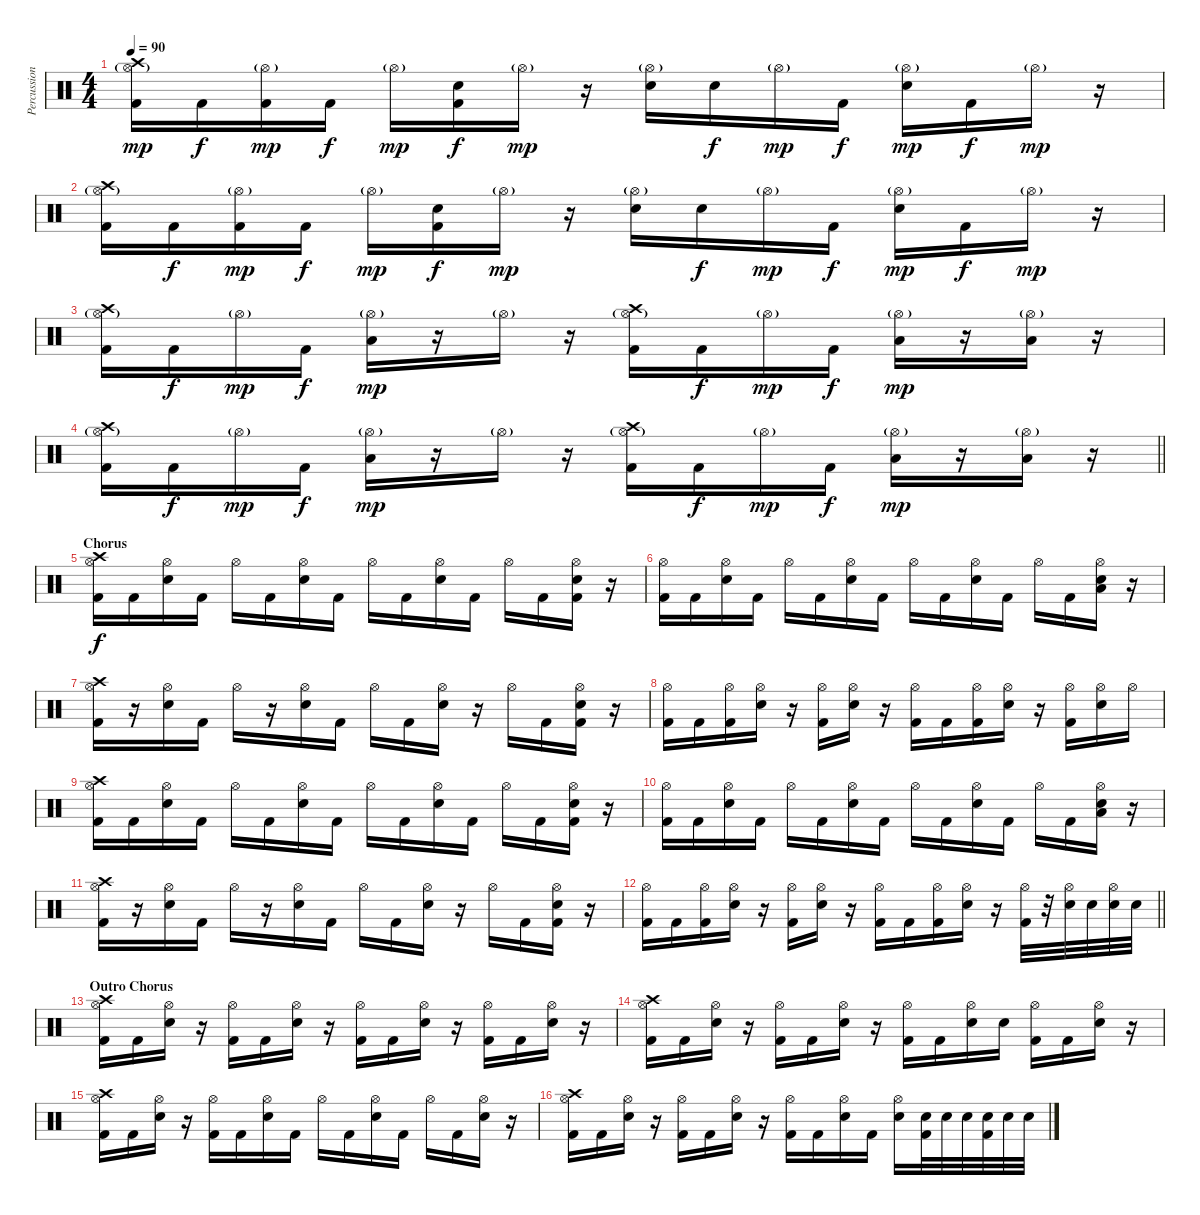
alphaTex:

\track ("Percussion" "Percussion") {instrument percussion}
\staff {score}
\articulation defaults
\ts (4 4)
\tempo 90
\clef neutral
\ks c
("Crash high (hit)" "Hi-Hat (open)"{g} "Kick (hit) 2").16{dy mp} "Kick (hit) 2".16{dy f} ("Hi-Hat (open)"{g} "Kick (hit) 2").16{dy mp} "Kick (hit) 2".16{dy f} "Hi-Hat (open)"{g}.16{dy mp} ("Electric Snare (hit)" "Kick (hit) 2").16{dy f} "Hi-Hat (open)"{g}.16{dy mp} r.16 ("Hi-Hat (open)"{g} "Electric Snare (hit)").16 "Electric Snare (hit)".16{dy f} "Hi-Hat (open)"{g}.16{dy mp} "Kick (hit) 2".16{dy f} ("Hi-Hat (open)"{g} "Electric Snare (hit)").16{dy mp} "Kick (hit) 2".16{dy f} "Hi-Hat (open)"{g}.16{dy mp} r.16 |
("Crash high (hit)" "Hi-Hat (open)"{g} "Kick (hit) 2").16 "Kick (hit) 2".16{dy f} ("Hi-Hat (open)"{g} "Kick (hit) 2").16{dy mp} "Kick (hit) 2".16{dy f} "Hi-Hat (open)"{g}.16{dy mp} ("Electric Snare (hit)" "Kick (hit) 2").16{dy f} "Hi-Hat (open)"{g}.16{dy mp} r.16 ("Hi-Hat (open)"{g} "Electric Snare (hit)").16 "Electric Snare (hit)".16{dy f} "Hi-Hat (open)"{g}.16{dy mp} "Kick (hit) 2".16{dy f} ("Hi-Hat (open)"{g} "Electric Snare (hit)").16{dy mp} "Kick (hit) 2".16{dy f} "Hi-Hat (open)"{g}.16{dy mp} r.16 |
("Crash high (hit)" "Hi-Hat (open)"{g} "Kick (hit) 2").16 "Kick (hit) 2".16{dy f} "Hi-Hat (open)"{g}.16{dy mp} "Kick (hit) 2".16{dy f} ("Hi-Hat (open)"{g} "Low Floor Tom (hit)").16{dy mp} r.16 "Hi-Hat (open)"{g}.16 r.16 ("Crash high (hit)" "Hi-Hat (open)"{g} "Kick (hit) 2").16 "Kick (hit) 2".16{dy f} "Hi-Hat (open)"{g}.16{dy mp} "Kick (hit) 2".16{dy f} ("Hi-Hat (open)"{g} "Low Floor Tom (hit)").16{dy mp} r.16 ("Hi-Hat (open)"{g} "Low Floor Tom (hit)").16 r.16 |
\barLineRight lightlight
("Crash high (hit)" "Hi-Hat (open)"{g} "Kick (hit) 2").16 "Kick (hit) 2".16{dy f} "Hi-Hat (open)"{g}.16{dy mp} "Kick (hit) 2".16{dy f} ("Hi-Hat (open)"{g} "Low Floor Tom (hit)").16{dy mp} r.16 "Hi-Hat (open)"{g}.16 r.16 ("Crash high (hit)" "Hi-Hat (open)"{g} "Kick (hit) 2").16 "Kick (hit) 2".16{dy f} "Hi-Hat (open)"{g}.16{dy mp} "Kick (hit) 2".16{dy f} ("Hi-Hat (open)"{g} "Low Floor Tom (hit)").16{dy mp} r.16 ("Hi-Hat (open)"{g} "Low Floor Tom (hit)").16 r.16 |
\section ("" "Chorus")
("Crash high (hit)" "Hi-Hat (open)" "Kick (hit) 2").16{dy f} "Kick (hit) 2".16 ("Hi-Hat (open)" "Electric Snare (hit)").16 "Kick (hit) 2".16 "Hi-Hat (open)".16 "Kick (hit) 2".16 ("Hi-Hat (open)" "Electric Snare (hit)").16 "Kick (hit) 2".16 "Hi-Hat (open)".16 "Kick (hit) 2".16 ("Hi-Hat (open)" "Electric Snare (hit)").16 "Kick (hit) 2".16 "Hi-Hat (open)".16 "Kick (hit) 2".16 ("Hi-Hat (open)" "Electric Snare (hit)" "Kick (hit) 2").16 r.16 |
("Hi-Hat (open)" "Kick (hit) 2").16 "Kick (hit) 2".16 ("Hi-Hat (open)" "Electric Snare (hit)").16 "Kick (hit) 2".16 "Hi-Hat (open)".16 "Kick (hit) 2".16 ("Hi-Hat (open)" "Electric Snare (hit)").16 "Kick (hit) 2".16 "Hi-Hat (open)".16 "Kick (hit) 2".16 ("Hi-Hat (open)" "Electric Snare (hit)").16 "Kick (hit) 2".16 "Hi-Hat (open)".16 "Kick (hit) 2".16 ("Hi-Hat (open)" "Electric Snare (hit)" "Low Floor Tom (hit)").16 r.16 |
("Crash high (hit)" "Hi-Hat (open)" "Kick (hit) 2").16 r.16 ("Hi-Hat (open)" "Electric Snare (hit)").16 "Kick (hit) 2".16 "Hi-Hat (open)".16 r.16 ("Hi-Hat (open)" "Electric Snare (hit)").16 "Kick (hit) 2".16 "Hi-Hat (open)".16 "Kick (hit) 2".16 ("Hi-Hat (open)" "Electric Snare (hit)").16 r.16 "Hi-Hat (open)".16 "Kick (hit) 2".16 ("Hi-Hat (open)" "Electric Snare (hit)" "Kick (hit) 2").16 r.16 |
("Hi-Hat (open)" "Kick (hit) 2").16 "Kick (hit) 2".16 ("Hi-Hat (open)" "Kick (hit) 2").16 ("Hi-Hat (open)" "Electric Snare (hit)").16 r.16 ("Hi-Hat (open)" "Kick (hit) 2").16 ("Hi-Hat (open)" "Electric Snare (hit)").16 r.16 ("Hi-Hat (open)" "Kick (hit) 2").16 "Kick (hit) 2".16 ("Hi-Hat (open)" "Kick (hit) 2").16 ("Hi-Hat (open)" "Electric Snare (hit)").16 r.16 ("Hi-Hat (open)" "Kick (hit) 2").16 ("Hi-Hat (open)" "Electric Snare (hit)").16 "Hi-Hat (open)".16 |
("Crash high (hit)" "Hi-Hat (open)" "Kick (hit) 2").16 "Kick (hit) 2".16 ("Hi-Hat (open)" "Electric Snare (hit)").16 "Kick (hit) 2".16 "Hi-Hat (open)".16 "Kick (hit) 2".16 ("Hi-Hat (open)" "Electric Snare (hit)").16 "Kick (hit) 2".16 "Hi-Hat (open)".16 "Kick (hit) 2".16 ("Hi-Hat (open)" "Electric Snare (hit)").16 "Kick (hit) 2".16 "Hi-Hat (open)".16 "Kick (hit) 2".16 ("Hi-Hat (open)" "Electric Snare (hit)" "Kick (hit) 2").16 r.16 |
("Hi-Hat (open)" "Kick (hit) 2").16 "Kick (hit) 2".16 ("Hi-Hat (open)" "Electric Snare (hit)").16 "Kick (hit) 2".16 "Hi-Hat (open)".16 "Kick (hit) 2".16 ("Hi-Hat (open)" "Electric Snare (hit)").16 "Kick (hit) 2".16 "Hi-Hat (open)".16 "Kick (hit) 2".16 ("Hi-Hat (open)" "Electric Snare (hit)").16 "Kick (hit) 2".16 "Hi-Hat (open)".16 "Kick (hit) 2".16 ("Hi-Hat (open)" "Electric Snare (hit)" "Low Floor Tom (hit)").16 r.16 |
("Crash high (hit)" "Hi-Hat (open)" "Kick (hit) 2").16 r.16 ("Hi-Hat (open)" "Electric Snare (hit)").16 "Kick (hit) 2".16 "Hi-Hat (open)".16 r.16 ("Hi-Hat (open)" "Electric Snare (hit)").16 "Kick (hit) 2".16 "Hi-Hat (open)".16 "Kick (hit) 2".16 ("Hi-Hat (open)" "Electric Snare (hit)").16 r.16 "Hi-Hat (open)".16 "Kick (hit) 2".16 ("Hi-Hat (open)" "Electric Snare (hit)" "Kick (hit) 2").16 r.16 |
\barLineRight lightlight
("Hi-Hat (open)" "Kick (hit) 2").16 "Kick (hit) 2".16 ("Hi-Hat (open)" "Kick (hit) 2").16 ("Hi-Hat (open)" "Electric Snare (hit)").16 r.16 ("Hi-Hat (open)" "Kick (hit) 2").16 ("Hi-Hat (open)" "Electric Snare (hit)").16 r.16 ("Hi-Hat (open)" "Kick (hit) 2").16 "Kick (hit) 2".16 ("Hi-Hat (open)" "Kick (hit) 2").16 ("Hi-Hat (open)" "Electric Snare (hit)").16 r.16 ("Hi-Hat (open)" "Kick (hit) 2").32 r.32 ("Hi-Hat (open)" "Electric Snare (hit)").32 "Electric Snare (hit)".32 ("Hi-Hat (open)" "Electric Snare (hit)").32 "Electric Snare (hit)".32 |
\section ("" "Outro Chorus")
("Crash high (hit)" "Hi-Hat (open)" "Kick (hit) 2").16 "Kick (hit) 2".16 ("Hi-Hat (open)" "Electric Snare (hit)").16 r.16 ("Hi-Hat (open)" "Kick (hit) 2").16 "Kick (hit) 2".16 ("Hi-Hat (open)" "Electric Snare (hit)").16 r.16 ("Hi-Hat (open)" "Kick (hit) 2").16 "Kick (hit) 2".16 ("Hi-Hat (open)" "Electric Snare (hit)").16 r.16 ("Hi-Hat (open)" "Kick (hit) 2").16 "Kick (hit) 2".16 ("Hi-Hat (open)" "Electric Snare (hit)").16 r.16 |
("Crash high (hit)" "Hi-Hat (open)" "Kick (hit) 2").16 "Kick (hit) 2".16 ("Hi-Hat (open)" "Electric Snare (hit)").16 r.16 ("Hi-Hat (open)" "Kick (hit) 2").16 "Kick (hit) 2".16 ("Hi-Hat (open)" "Electric Snare (hit)").16 r.16 ("Hi-Hat (open)" "Kick (hit) 2").16 "Kick (hit) 2".16 ("Hi-Hat (open)" "Electric Snare (hit)").16 "Electric Snare (hit)".16 ("Hi-Hat (open)" "Kick (hit) 2").16 "Kick (hit) 2".16 ("Hi-Hat (open)" "Electric Snare (hit)").16 r.16 |
("Crash high (hit)" "Hi-Hat (open)" "Kick (hit) 2").16 "Kick (hit) 2".16 ("Hi-Hat (open)" "Electric Snare (hit)").16 r.16 ("Hi-Hat (open)" "Kick (hit) 2").16 "Kick (hit) 2".16 ("Hi-Hat (open)" "Electric Snare (hit)").16 "Kick (hit) 2".16 "Hi-Hat (open)".16 "Kick (hit) 2".16 ("Hi-Hat (open)" "Electric Snare (hit)").16 "Kick (hit) 2".16 "Hi-Hat (open)".16 "Kick (hit) 2".16 ("Hi-Hat (open)" "Electric Snare (hit)").16 r.16 |
("Crash high (hit)" "Hi-Hat (open)" "Kick (hit) 2").16 "Kick (hit) 2".16 ("Hi-Hat (open)" "Electric Snare (hit)").16 r.16 ("Hi-Hat (open)" "Kick (hit) 2").16 "Kick (hit) 2".16 ("Hi-Hat (open)" "Electric Snare (hit)").16 r.16 ("Hi-Hat (open)" "Kick (hit) 2").16 "Kick (hit) 2".16 ("Hi-Hat (open)" "Electric Snare (hit)").16 "Kick (hit) 2".16 ("Hi-Hat (open)" "Electric Snare (hit)").16 ("Electric Snare (hit)" "Kick (hit) 2").32 "Electric Snare (hit)".32 "Electric Snare (hit)".32 ("Electric Snare (hit)" "Kick (hit) 2").32 "Electric Snare (hit)".32 "Electric Snare (hit)".32
